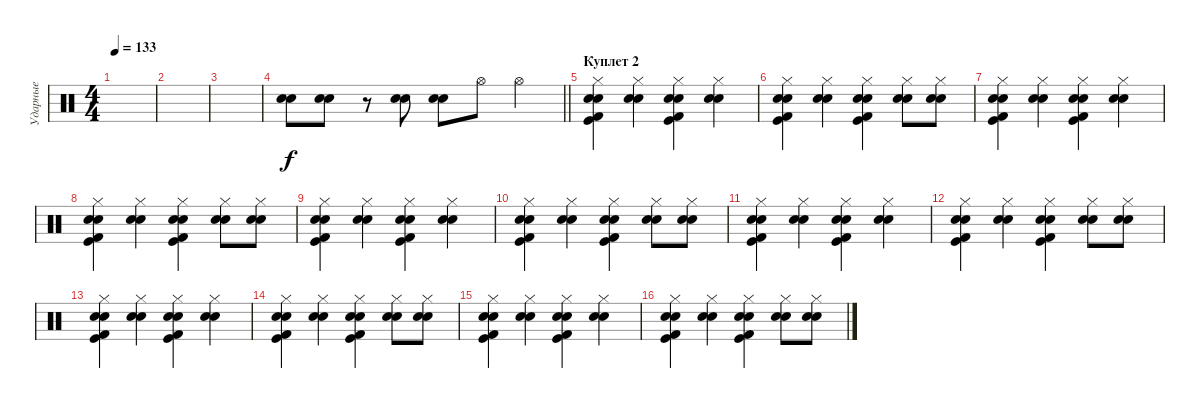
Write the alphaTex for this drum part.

\track ("Ударные" "Ударные") {instrument percussion}
\staff {score}
\articulation defaults
\ts (4 4)
\tempo 133
\clef neutral
\ks c
|
|
|
\barLineRight lightlight
("Snare (hit) 2" "Snare (hit) 2").8 ("Snare (hit) 2" "Snare (hit) 2").8 r.8 ("Snare (hit) 2" "Electric Snare (hit)").8 ("Snare (hit) 2" "Electric Snare (hit)").8 "Hi-Hat (open)".8 "Hi-Hat (open)".4 |
\section ("" "Куплет 2")
("Snare (hit) 2" "Kick (hit)" "Kick (hit) 2" "Snare (hit) 2" "Hi-Hat (closed)").4 ("Electric Snare (hit)" "Electric Snare (hit)" "Hi-Hat (closed)").4 ("Snare (hit) 2" "Kick (hit)" "Kick (hit) 2" "Snare (hit) 2" "Hi-Hat (closed)").4 ("Electric Snare (hit)" "Electric Snare (hit)" "Hi-Hat (closed)").4 |
("Snare (hit) 2" "Kick (hit)" "Kick (hit) 2" "Snare (hit) 2" "Hi-Hat (closed)").4 ("Electric Snare (hit)" "Electric Snare (hit)" "Hi-Hat (closed)").4 ("Snare (hit) 2" "Kick (hit)" "Kick (hit) 2" "Snare (hit) 2" "Hi-Hat (closed)").4 ("Electric Snare (hit)" "Electric Snare (hit)" "Hi-Hat (closed)").8 ("Electric Snare (hit)" "Electric Snare (hit)" "Hi-Hat (closed)").8 |
("Snare (hit) 2" "Kick (hit)" "Kick (hit) 2" "Snare (hit) 2" "Hi-Hat (closed)").4 ("Electric Snare (hit)" "Electric Snare (hit)" "Hi-Hat (closed)").4 ("Snare (hit) 2" "Kick (hit)" "Kick (hit) 2" "Snare (hit) 2" "Hi-Hat (closed)").4 ("Electric Snare (hit)" "Electric Snare (hit)" "Hi-Hat (closed)").4 |
("Snare (hit) 2" "Kick (hit)" "Kick (hit) 2" "Snare (hit) 2" "Hi-Hat (closed)").4 ("Electric Snare (hit)" "Electric Snare (hit)" "Hi-Hat (closed)").4 ("Snare (hit) 2" "Kick (hit)" "Kick (hit) 2" "Snare (hit) 2" "Hi-Hat (closed)").4 ("Electric Snare (hit)" "Electric Snare (hit)" "Hi-Hat (closed)").8 ("Electric Snare (hit)" "Electric Snare (hit)" "Hi-Hat (closed)").8 |
("Snare (hit) 2" "Kick (hit)" "Kick (hit) 2" "Snare (hit) 2" "Hi-Hat (closed)").4 ("Electric Snare (hit)" "Electric Snare (hit)" "Hi-Hat (closed)").4 ("Snare (hit) 2" "Kick (hit)" "Kick (hit) 2" "Snare (hit) 2" "Hi-Hat (closed)").4 ("Electric Snare (hit)" "Electric Snare (hit)" "Hi-Hat (closed)").4 |
("Snare (hit) 2" "Kick (hit)" "Kick (hit) 2" "Snare (hit) 2" "Hi-Hat (closed)").4 ("Electric Snare (hit)" "Electric Snare (hit)" "Hi-Hat (closed)").4 ("Snare (hit) 2" "Kick (hit)" "Kick (hit) 2" "Snare (hit) 2" "Hi-Hat (closed)").4 ("Electric Snare (hit)" "Electric Snare (hit)" "Hi-Hat (closed)").8 ("Electric Snare (hit)" "Electric Snare (hit)" "Hi-Hat (closed)").8 |
("Snare (hit) 2" "Kick (hit)" "Kick (hit) 2" "Snare (hit) 2" "Hi-Hat (closed)").4 ("Electric Snare (hit)" "Electric Snare (hit)" "Hi-Hat (closed)").4 ("Snare (hit) 2" "Kick (hit)" "Kick (hit) 2" "Snare (hit) 2" "Hi-Hat (closed)").4 ("Electric Snare (hit)" "Electric Snare (hit)" "Hi-Hat (closed)").4 |
("Snare (hit) 2" "Kick (hit)" "Kick (hit) 2" "Snare (hit) 2" "Hi-Hat (closed)").4 ("Electric Snare (hit)" "Electric Snare (hit)" "Hi-Hat (closed)").4 ("Snare (hit) 2" "Kick (hit)" "Kick (hit) 2" "Snare (hit) 2" "Hi-Hat (closed)").4 ("Electric Snare (hit)" "Electric Snare (hit)" "Hi-Hat (closed)").8 ("Electric Snare (hit)" "Electric Snare (hit)" "Hi-Hat (closed)").8 |
("Snare (hit) 2" "Kick (hit)" "Kick (hit) 2" "Snare (hit) 2" "Hi-Hat (closed)").4 ("Electric Snare (hit)" "Electric Snare (hit)" "Hi-Hat (closed)").4 ("Snare (hit) 2" "Kick (hit)" "Kick (hit) 2" "Snare (hit) 2" "Hi-Hat (closed)").4 ("Electric Snare (hit)" "Electric Snare (hit)" "Hi-Hat (closed)").4 |
("Snare (hit) 2" "Kick (hit)" "Kick (hit) 2" "Snare (hit) 2" "Hi-Hat (closed)").4 ("Electric Snare (hit)" "Electric Snare (hit)" "Hi-Hat (closed)").4 ("Snare (hit) 2" "Kick (hit)" "Kick (hit) 2" "Snare (hit) 2" "Hi-Hat (closed)").4 ("Electric Snare (hit)" "Electric Snare (hit)" "Hi-Hat (closed)").8 ("Electric Snare (hit)" "Electric Snare (hit)" "Hi-Hat (closed)").8 |
("Snare (hit) 2" "Kick (hit)" "Kick (hit) 2" "Snare (hit) 2" "Hi-Hat (closed)").4 ("Electric Snare (hit)" "Electric Snare (hit)" "Hi-Hat (closed)").4 ("Snare (hit) 2" "Kick (hit)" "Kick (hit) 2" "Snare (hit) 2" "Hi-Hat (closed)").4 ("Electric Snare (hit)" "Electric Snare (hit)" "Hi-Hat (closed)").4 |
("Snare (hit) 2" "Kick (hit)" "Kick (hit) 2" "Snare (hit) 2" "Hi-Hat (closed)").4 ("Electric Snare (hit)" "Electric Snare (hit)" "Hi-Hat (closed)").4 ("Snare (hit) 2" "Kick (hit)" "Kick (hit) 2" "Snare (hit) 2" "Hi-Hat (closed)").4 ("Electric Snare (hit)" "Electric Snare (hit)" "Hi-Hat (closed)").8 ("Electric Snare (hit)" "Electric Snare (hit)" "Hi-Hat (closed)").8
